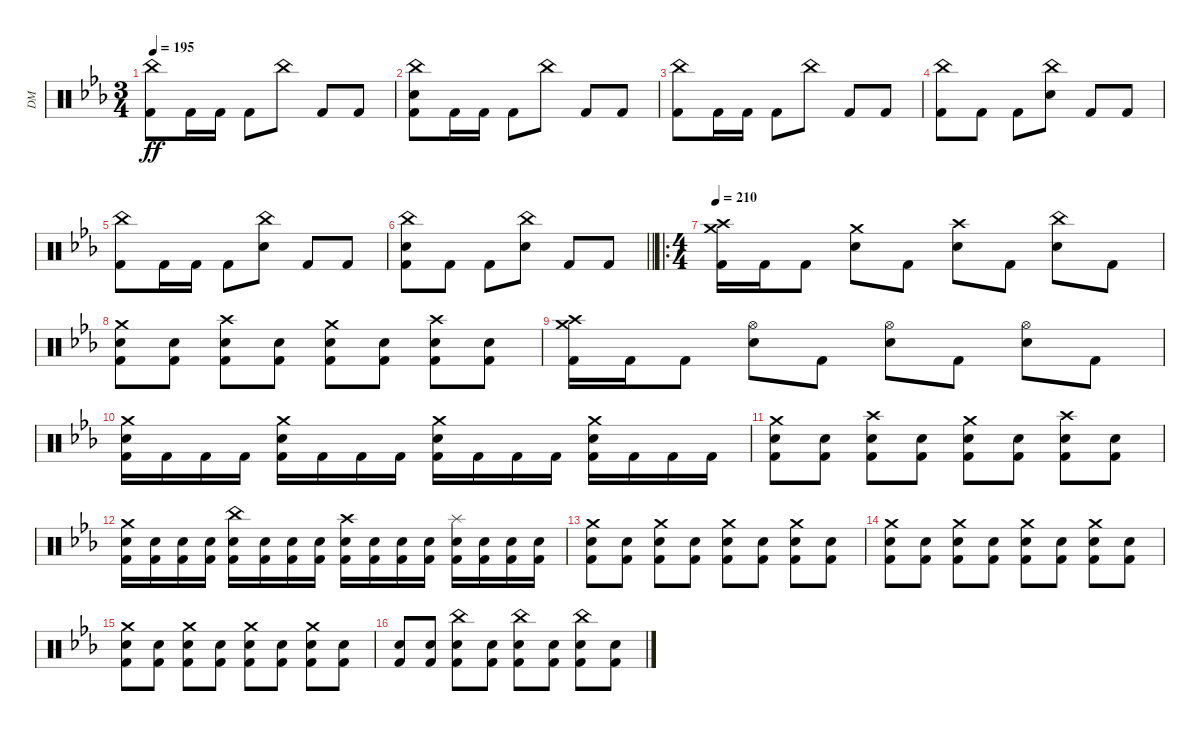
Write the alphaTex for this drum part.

\track ("DM" "DM") {instrument percussion}
\staff {score}
\articulation defaults
\ts (3 4)
\tempo 195
\clef neutral
\ks cminor
("China (hit)" "Kick (hit) 2").8{dy ff} "Kick (hit) 2".16 "Kick (hit) 2".16 "Kick (hit) 2".8 "China (hit)".8 "Kick (hit) 2".8 "Kick (hit) 2".8 |
("China (hit)" "Electric Snare (hit)" "Kick (hit) 2").8 "Kick (hit) 2".16 "Kick (hit) 2".16 "Kick (hit) 2".8 "China (hit)".8 "Kick (hit) 2".8 "Kick (hit) 2".8 |
("China (hit)" "Kick (hit) 2").8 "Kick (hit) 2".16 "Kick (hit) 2".16 "Kick (hit) 2".8 "China (hit)".8 "Kick (hit) 2".8 "Kick (hit) 2".8 |
("China (hit)" "Kick (hit) 2").8 "Kick (hit) 2".8 "Kick (hit) 2".8 ("China (hit)" "Electric Snare (hit)").8 "Kick (hit) 2".8 "Kick (hit) 2".8 |
("China (hit)" "Kick (hit) 2").8 "Kick (hit) 2".16 "Kick (hit) 2".16 "Kick (hit) 2".8 ("China (hit)" "Electric Snare (hit)").8 "Kick (hit) 2".8 "Kick (hit) 2".8 |
\barLineRight lightlight
("China (hit)" "Electric Snare (hit)" "Kick (hit) 2").8 "Kick (hit) 2".8 "Kick (hit) 2".8 ("China (hit)" "Electric Snare (hit)").8 "Kick (hit) 2".8 "Kick (hit) 2".8 |
\ro
\ts (4 4)
\section ("" "")
\tempo 210
("Crash medium (hit)" "Crash high (hit)" "Kick (hit) 2").16 "Kick (hit) 2".16 "Kick (hit) 2".8 ("Crash medium (hit)" "Electric Snare (hit)").8 "Kick (hit) 2".8 ("Crash high (hit)" "Electric Snare (hit)").8 "Kick (hit) 2".8 ("China (hit)" "Electric Snare (hit)").8 "Kick (hit) 2".8 |
("Crash medium (hit)" "Electric Snare (hit)" "Kick (hit) 2").8 ("Electric Snare (hit)" "Kick (hit) 2").8 ("Crash high (hit)" "Electric Snare (hit)" "Kick (hit) 2").8 ("Electric Snare (hit)" "Kick (hit) 2").8 ("Crash medium (hit)" "Electric Snare (hit)" "Kick (hit) 2").8 ("Electric Snare (hit)" "Kick (hit) 2").8 ("Crash high (hit)" "Electric Snare (hit)" "Kick (hit) 2").8 ("Electric Snare (hit)" "Kick (hit) 2").8 |
("Crash medium (hit)" "Crash high (hit)" "Kick (hit) 2").16 "Kick (hit) 2".16 "Kick (hit) 2".8 ("Hi-Hat (open)" "Electric Snare (hit)").8 "Kick (hit) 2".8 ("Hi-Hat (open)" "Electric Snare (hit)").8 "Kick (hit) 2".8 ("Hi-Hat (open)" "Electric Snare (hit)").8 "Kick (hit) 2".8 |
("Crash medium (hit)" "Electric Snare (hit)" "Kick (hit) 2").16 "Kick (hit) 2".16 "Kick (hit) 2".16 "Kick (hit) 2".16 ("Crash medium (hit)" "Electric Snare (hit)" "Kick (hit) 2").16 "Kick (hit) 2".16 "Kick (hit) 2".16 "Kick (hit) 2".16 ("Crash medium (hit)" "Electric Snare (hit)" "Kick (hit) 2").16 "Kick (hit) 2".16 "Kick (hit) 2".16 "Kick (hit) 2".16 ("Crash medium (hit)" "Electric Snare (hit)" "Kick (hit) 2").16 "Kick (hit) 2".16 "Kick (hit) 2".16 "Kick (hit) 2".16 |
("Crash medium (hit)" "Electric Snare (hit)" "Kick (hit) 2").8 ("Electric Snare (hit)" "Kick (hit) 2").8 ("Crash high (hit)" "Electric Snare (hit)" "Kick (hit) 2").8 ("Electric Snare (hit)" "Kick (hit) 2").8 ("Crash medium (hit)" "Electric Snare (hit)" "Kick (hit) 2").8 ("Electric Snare (hit)" "Kick (hit) 2").8 ("Crash high (hit)" "Electric Snare (hit)" "Kick (hit) 2").8 ("Electric Snare (hit)" "Kick (hit) 2").8 |
("Crash medium (hit)" "Electric Snare (hit)" "Kick (hit) 2").16 ("Electric Snare (hit)" "Kick (hit) 2").16 ("Electric Snare (hit)" "Kick (hit) 2").16 ("Electric Snare (hit)" "Kick (hit) 2").16 ("China (hit)" "Electric Snare (hit)" "Kick (hit) 2").16 ("Electric Snare (hit)" "Kick (hit) 2").16 ("Electric Snare (hit)" "Kick (hit) 2").16 ("Electric Snare (hit)" "Kick (hit) 2").16 ("Crash high (hit)" "Electric Snare (hit)" "Kick (hit) 2").16 ("Electric Snare (hit)" "Kick (hit) 2").16 ("Electric Snare (hit)" "Kick (hit) 2").16 ("Electric Snare (hit)" "Kick (hit) 2").16 ("Splash (hit)" "Electric Snare (hit)" "Kick (hit) 2").16 ("Electric Snare (hit)" "Kick (hit) 2").16 ("Electric Snare (hit)" "Kick (hit) 2").16 ("Electric Snare (hit)" "Kick (hit) 2").16 |
("Crash medium (hit)" "Electric Snare (hit)" "Kick (hit) 2").8 ("Electric Snare (hit)" "Kick (hit) 2").8 ("Crash medium (hit)" "Electric Snare (hit)" "Kick (hit) 2").8 ("Electric Snare (hit)" "Kick (hit) 2").8 ("Crash medium (hit)" "Electric Snare (hit)" "Kick (hit) 2").8 ("Electric Snare (hit)" "Kick (hit) 2").8 ("Crash medium (hit)" "Electric Snare (hit)" "Kick (hit) 2").8 ("Electric Snare (hit)" "Kick (hit) 2").8 |
("Crash medium (hit)" "Electric Snare (hit)" "Kick (hit) 2").8 ("Electric Snare (hit)" "Kick (hit) 2").8 ("Crash medium (hit)" "Electric Snare (hit)" "Kick (hit) 2").8 ("Electric Snare (hit)" "Kick (hit) 2").8 ("Crash medium (hit)" "Electric Snare (hit)" "Kick (hit) 2").8 ("Electric Snare (hit)" "Kick (hit) 2").8 ("Crash medium (hit)" "Electric Snare (hit)" "Kick (hit) 2").8 ("Electric Snare (hit)" "Kick (hit) 2").8 |
("Crash medium (hit)" "Electric Snare (hit)" "Kick (hit) 2").8 ("Electric Snare (hit)" "Kick (hit) 2").8 ("Crash medium (hit)" "Electric Snare (hit)" "Kick (hit) 2").8 ("Electric Snare (hit)" "Kick (hit) 2").8 ("Crash medium (hit)" "Electric Snare (hit)" "Kick (hit) 2").8 ("Electric Snare (hit)" "Kick (hit) 2").8 ("Crash medium (hit)" "Electric Snare (hit)" "Kick (hit) 2").8 ("Electric Snare (hit)" "Kick (hit) 2").8 |
("Electric Snare (hit)" "Kick (hit) 2").8 ("Electric Snare (hit)" "Kick (hit) 2").8 ("China (hit)" "Electric Snare (hit)" "Kick (hit) 2").8 ("Electric Snare (hit)" "Kick (hit) 2").8 ("China (hit)" "Electric Snare (hit)" "Kick (hit) 2").8 ("Electric Snare (hit)" "Kick (hit) 2").8 ("China (hit)" "Electric Snare (hit)" "Kick (hit) 2").8 ("Electric Snare (hit)" "Kick (hit) 2").8
